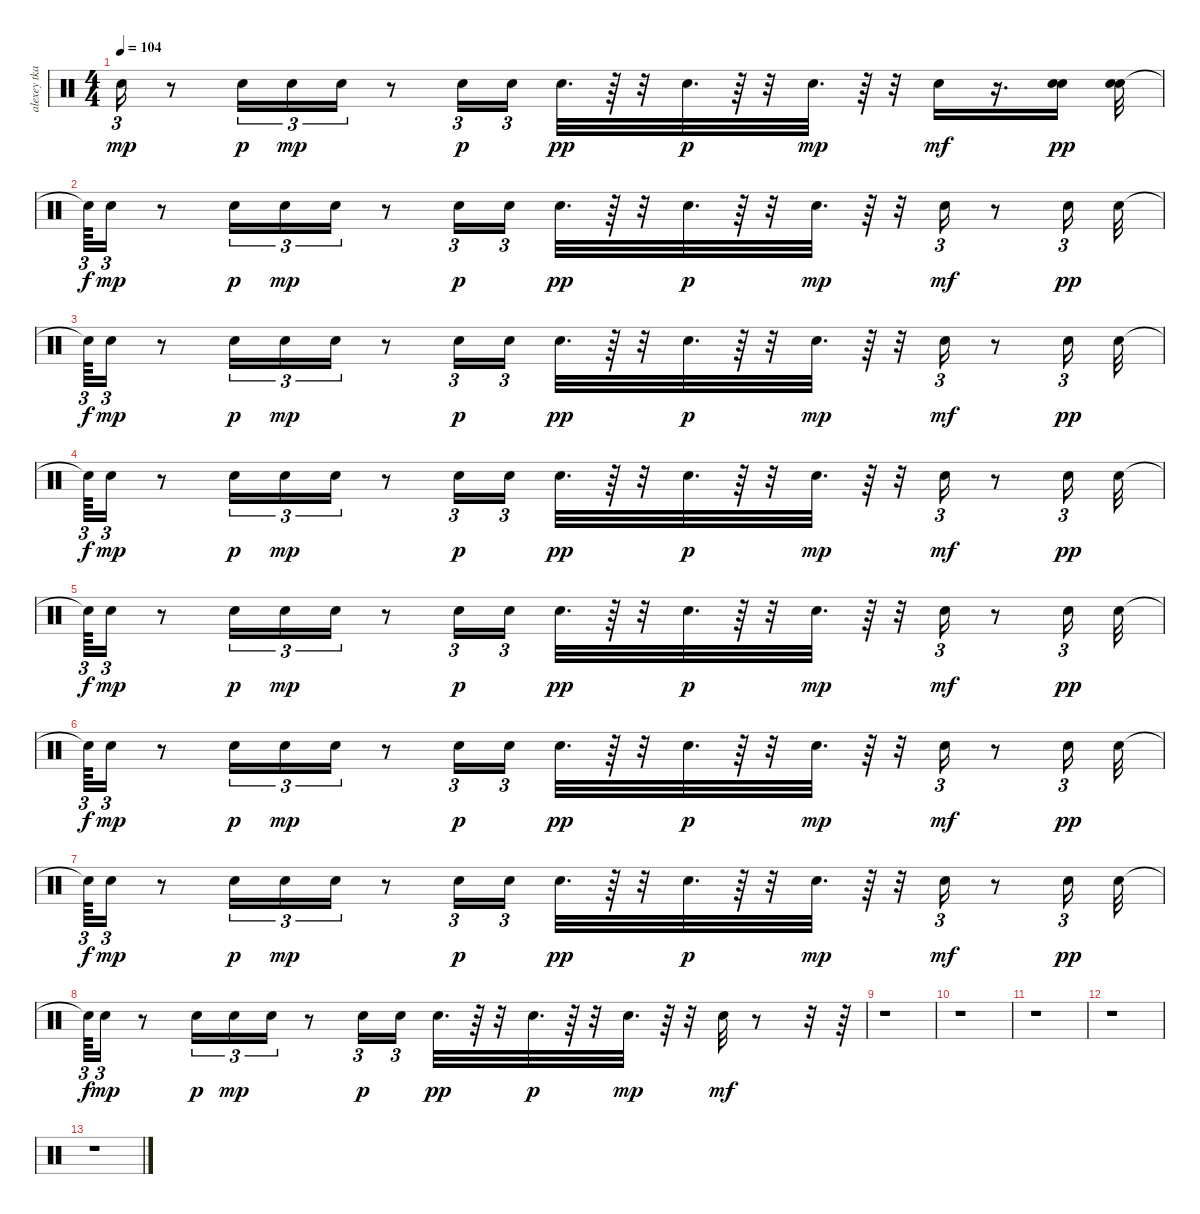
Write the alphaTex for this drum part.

\track ("alexey tkachevsky" "alexey tka") {instrument percussion}
\staff {score}
\articulation defaults
\ts (4 4)
\tempo 104
\clef neutral
\ks c "Snare (hit)".16{tu (3 2) dy mp}
r.8 "Snare (hit)".16{tu (3 2) dy p} "Snare (hit)".16{tu (3 2) dy mp} "Snare (hit)".16{tu (3 2)} r.8 "Snare (hit)".16{tu (3 2) dy p} "Snare (hit)".16{tu (3 2)} "Snare (hit)".32{d dy pp} r.64 r.32 "Snare (hit)".32{d dy p} r.64 r.32 "Snare (hit)".32{d dy mp} r.64 r.32 "Snare (hit)".16{dy mf} r.16{d} ("Snare (hit)" "Snare (hit)").16{dy pp} ("Snare (hit)" "Snare (hit)").32 |
"Snare (hit)"{t}.64{tu (3 2) dy f} "Snare (hit)".16{tu (3 2) dy mp} r.8 "Snare (hit)".16{tu (3 2) dy p} "Snare (hit)".16{tu (3 2) dy mp} "Snare (hit)".16{tu (3 2)} r.8 "Snare (hit)".16{tu (3 2) dy p} "Snare (hit)".16{tu (3 2)} "Snare (hit)".32{d dy pp} r.64 r.32 "Snare (hit)".32{d dy p} r.64 r.32 "Snare (hit)".32{d dy mp} r.64 r.32 "Snare (hit)".16{tu (3 2) dy mf} r.8 "Snare (hit)".16{tu (3 2) dy pp} "Snare (hit)".32 |
"Snare (hit)"{t}.64{tu (3 2) dy f} "Snare (hit)".16{tu (3 2) dy mp} r.8 "Snare (hit)".16{tu (3 2) dy p} "Snare (hit)".16{tu (3 2) dy mp} "Snare (hit)".16{tu (3 2)} r.8 "Snare (hit)".16{tu (3 2) dy p} "Snare (hit)".16{tu (3 2)} "Snare (hit)".32{d dy pp} r.64 r.32 "Snare (hit)".32{d dy p} r.64 r.32 "Snare (hit)".32{d dy mp} r.64 r.32 "Snare (hit)".16{tu (3 2) dy mf} r.8 "Snare (hit)".16{tu (3 2) dy pp} "Snare (hit)".32 |
"Snare (hit)"{t}.64{tu (3 2) dy f} "Snare (hit)".16{tu (3 2) dy mp} r.8 "Snare (hit)".16{tu (3 2) dy p} "Snare (hit)".16{tu (3 2) dy mp} "Snare (hit)".16{tu (3 2)} r.8 "Snare (hit)".16{tu (3 2) dy p} "Snare (hit)".16{tu (3 2)} "Snare (hit)".32{d dy pp} r.64 r.32 "Snare (hit)".32{d dy p} r.64 r.32 "Snare (hit)".32{d dy mp} r.64 r.32 "Snare (hit)".16{tu (3 2) dy mf} r.8 "Snare (hit)".16{tu (3 2) dy pp} "Snare (hit)".32 |
"Snare (hit)"{t}.64{tu (3 2) dy f} "Snare (hit)".16{tu (3 2) dy mp} r.8 "Snare (hit)".16{tu (3 2) dy p} "Snare (hit)".16{tu (3 2) dy mp} "Snare (hit)".16{tu (3 2)} r.8 "Snare (hit)".16{tu (3 2) dy p} "Snare (hit)".16{tu (3 2)} "Snare (hit)".32{d dy pp} r.64 r.32 "Snare (hit)".32{d dy p} r.64 r.32 "Snare (hit)".32{d dy mp} r.64 r.32 "Snare (hit)".16{tu (3 2) dy mf} r.8 "Snare (hit)".16{tu (3 2) dy pp} "Snare (hit)".32 |
"Snare (hit)"{t}.64{tu (3 2) dy f} "Snare (hit)".16{tu (3 2) dy mp} r.8 "Snare (hit)".16{tu (3 2) dy p} "Snare (hit)".16{tu (3 2) dy mp} "Snare (hit)".16{tu (3 2)} r.8 "Snare (hit)".16{tu (3 2) dy p} "Snare (hit)".16{tu (3 2)} "Snare (hit)".32{d dy pp} r.64 r.32 "Snare (hit)".32{d dy p} r.64 r.32 "Snare (hit)".32{d dy mp} r.64 r.32 "Snare (hit)".16{tu (3 2) dy mf} r.8 "Snare (hit)".16{tu (3 2) dy pp} "Snare (hit)".32 |
"Snare (hit)"{t}.64{tu (3 2) dy f} "Snare (hit)".16{tu (3 2) dy mp} r.8 "Snare (hit)".16{tu (3 2) dy p} "Snare (hit)".16{tu (3 2) dy mp} "Snare (hit)".16{tu (3 2)} r.8 "Snare (hit)".16{tu (3 2) dy p} "Snare (hit)".16{tu (3 2)} "Snare (hit)".32{d dy pp} r.64 r.32 "Snare (hit)".32{d dy p} r.64 r.32 "Snare (hit)".32{d dy mp} r.64 r.32 "Snare (hit)".16{tu (3 2) dy mf} r.8 "Snare (hit)".16{tu (3 2) dy pp} "Snare (hit)".32 |
"Snare (hit)"{t}.64{tu (3 2) dy f} "Snare (hit)".16{tu (3 2) dy mp} r.8 "Snare (hit)".16{tu (3 2) dy p} "Snare (hit)".16{tu (3 2) dy mp} "Snare (hit)".16{tu (3 2)} r.8 "Snare (hit)".16{tu (3 2) dy p} "Snare (hit)".16{tu (3 2)} "Snare (hit)".32{d dy pp} r.64 r.32 "Snare (hit)".32{d dy p} r.64 r.32 "Snare (hit)".32{d dy mp} r.64 r.32 "Snare (hit)".32{dy mf} r.8 r.32 r.64 |
r.1 |
r.1 |
r.1 |
r.1 |
r.1
